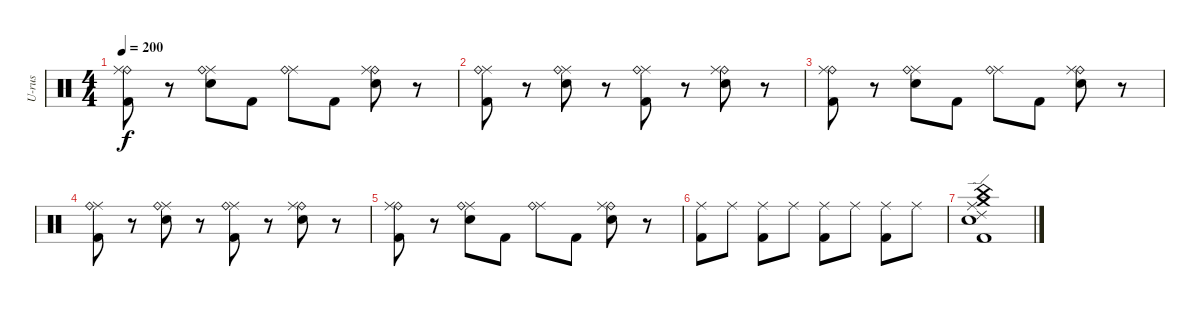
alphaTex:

\track ("U-rus" "U-rus") {instrument percussion}
\staff {score}
\articulation defaults
\ts (4 4)
\tempo 200
\clef neutral
\ks c
("Ride (bell)" "Ride (middle)" "Kick (hit) 2").8{dy f} r.8 ("Ride (middle)" "Ride (bell)" "Snare (hit) 2").8 "Kick (hit) 2".8 ("Ride (middle)" "Ride (bell)").8 "Kick (hit) 2".8 ("Ride (bell)" "Ride (middle)" "Snare (hit) 2").8 r.8 |
("Ride (middle)" "Ride (bell)" "Kick (hit) 2").8 r.8 ("Ride (middle)" "Ride (bell)" "Snare (hit) 2").8 r.8 ("Ride (middle)" "Ride (bell)" "Kick (hit) 2").8 r.8 ("Ride (bell)" "Ride (middle)" "Snare (hit) 2").8 r.8 |
("Ride (bell)" "Ride (middle)" "Kick (hit) 2").8 r.8 ("Ride (middle)" "Ride (bell)" "Snare (hit) 2").8 "Kick (hit) 2".8 ("Ride (middle)" "Ride (bell)").8 "Kick (hit) 2".8 ("Ride (bell)" "Ride (middle)" "Snare (hit) 2").8 r.8 |
("Ride (middle)" "Ride (bell)" "Kick (hit) 2").8 r.8 ("Ride (middle)" "Ride (bell)" "Snare (hit) 2").8 r.8 ("Ride (middle)" "Ride (bell)" "Kick (hit) 2").8 r.8 ("Ride (bell)" "Ride (middle)" "Snare (hit) 2").8 r.8 |
("Ride (bell)" "Ride (middle)" "Kick (hit) 2").8 r.8 ("Ride (middle)" "Ride (bell)" "Snare (hit) 2").8 "Kick (hit) 2".8 ("Ride (middle)" "Ride (bell)").8 "Kick (hit) 2".8 ("Ride (bell)" "Ride (middle)" "Snare (hit) 2").8 r.8 |
("Ride (middle)" "Kick (hit) 2").8 "Ride (middle)".8 ("Ride (middle)" "Kick (hit) 2").8 "Ride (middle)".8 ("Ride (middle)" "Kick (hit) 2").8 "Ride (middle)".8 ("Ride (middle)" "Kick (hit) 2").8 "Ride (middle)".8 |
("Ride (edge) 2" "Crash medium (hit)" "Ride (middle)" "China (hit)" "Snare (hit) 2" "Kick (hit) 2").1
